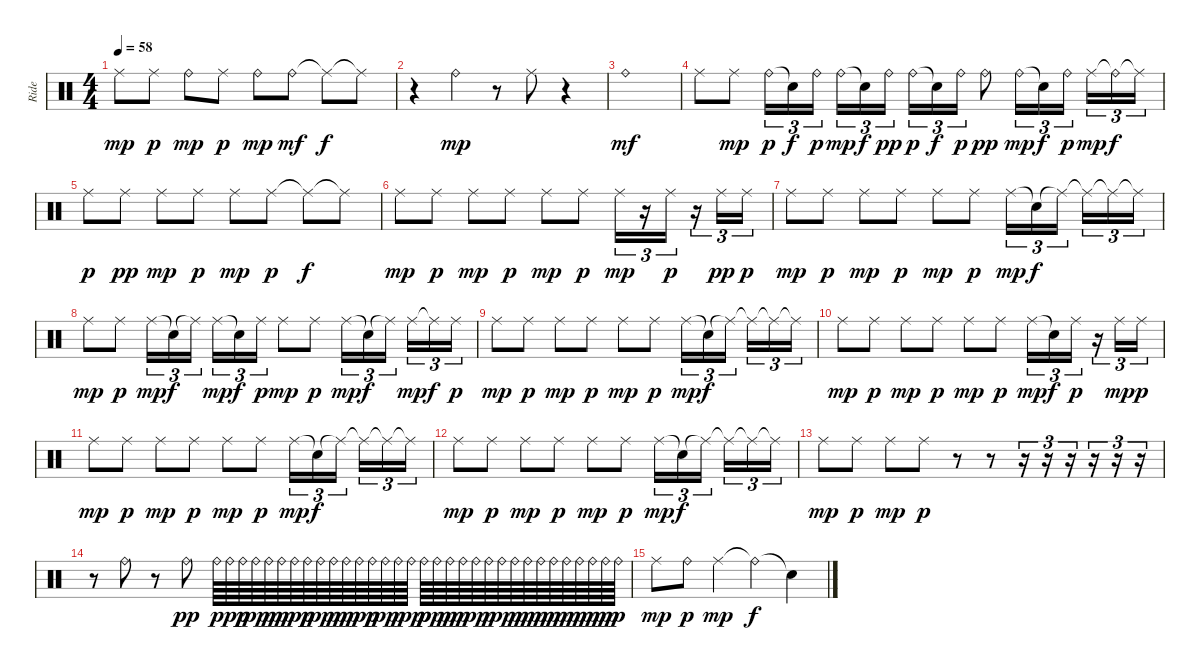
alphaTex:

\track ("Ride" "Ride") {instrument percussion}
\staff {score}
\articulation defaults
\ts (4 4)
\tempo 58
\clef neutral
\ks c "Ride (middle)".8{dy mp} "Ride (middle)".8{dy p} "Ride (bell)".8{dy mp} "Ride (middle)".8{dy p} "Ride (bell)".8{dy mp} "Ride (bell)".8{dy mf} "Ride (middle)"{t}.8{dy f} "Ride (middle)"{t}.8
|
r.4 "Ride (bell)".4{dy mp} r.8 "Ride (middle)".8 r.4 |
"Ride (bell)".1{dy mf} |
"Ride (middle)".8 "Ride (middle)".8{dy mp} "Ride (bell)".16{tu (3 2) dy p} "Snare (hit)"{t}.16{tu (3 2) dy f} "Ride (bell)".16{tu (3 2) dy p} "Ride (bell)".16{tu (3 2) dy mp} "Snare (hit)"{t}.16{tu (3 2) dy f} "Ride (bell)".16{tu (3 2) dy pp} "Ride (bell)".16{tu (3 2) dy p} "Snare (hit)"{t}.16{tu (3 2) dy f} "Ride (bell)".16{tu (3 2) dy p} "Ride (bell)".8{dy pp} "Ride (bell)".16{tu (3 2) dy mp} "Snare (hit)"{t}.16{tu (3 2) dy f} "Ride (bell)".16{tu (3 2) dy p} "Ride (middle)".16{tu (3 2) dy mp} "Ride (bell)"{t}.16{tu (3 2) dy f} "Ride (middle)"{t}.16{tu (3 2)} |
"Ride (middle)".8{dy p} "Ride (middle)".8{dy pp} "Ride (middle)".8{dy mp} "Ride (middle)".8{dy p} "Ride (middle)".8{dy mp} "Ride (middle)".8{dy p} "Ride (middle)"{t}.8{dy f} "Ride (middle)"{t}.8 |
"Ride (middle)".8{dy mp} "Ride (middle)".8{dy p} "Ride (middle)".8{dy mp} "Ride (middle)".8{dy p} "Ride (middle)".8{dy mp} "Ride (middle)".8{dy p} "Ride (middle)".16{tu (3 2) dy mp} r.16{tu (3 2)} "Ride (middle)".16{tu (3 2) dy p} r.16{tu (3 2)} "Ride (middle)".16{tu (3 2) dy pp} "Ride (middle)".16{tu (3 2) dy p} |
"Ride (middle)".8{dy mp} "Ride (middle)".8{dy p} "Ride (middle)".8{dy mp} "Ride (middle)".8{dy p} "Ride (middle)".8{dy mp} "Ride (middle)".8{dy p} "Ride (middle)".16{tu (3 2) dy mp} "Snare (hit)"{t}.16{tu (3 2) dy f} "Ride (middle)"{t}.16{tu (3 2)} "Ride (middle)"{t}.16{tu (3 2)} "Ride (middle)"{t}.16{tu (3 2)} "Ride (middle)"{t}.16{tu (3 2)} |
"Ride (middle)".8{dy mp} "Ride (middle)".8{dy p} "Ride (middle)".16{tu (3 2) dy mp} "Snare (hit)"{t}.16{tu (3 2) dy f} "Ride (middle)"{t}.16{tu (3 2)} "Ride (middle)".16{tu (3 2) dy mp} "Snare (hit)"{t}.16{tu (3 2) dy f} "Ride (middle)".16{tu (3 2) dy p} "Ride (middle)".8{dy mp} "Ride (middle)".8{dy p} "Ride (middle)".16{tu (3 2) dy mp} "Snare (hit)"{t}.16{tu (3 2) dy f} "Ride (middle)"{t}.16{tu (3 2)} "Ride (middle)".16{tu (3 2) dy mp} "Ride (middle)"{t}.16{tu (3 2) dy f} "Ride (middle)".16{tu (3 2) dy p} |
"Ride (middle)".8{dy mp} "Ride (middle)".8{dy p} "Ride (middle)".8{dy mp} "Ride (middle)".8{dy p} "Ride (middle)".8{dy mp} "Ride (middle)".8{dy p} "Ride (middle)".16{tu (3 2) dy mp} "Snare (hit)"{t}.16{tu (3 2) dy f} "Ride (middle)"{t}.16{tu (3 2)} "Ride (middle)"{t}.16{tu (3 2)} "Ride (middle)"{t}.16{tu (3 2)} "Ride (middle)"{t}.16{tu (3 2)} |
"Ride (middle)".8{dy mp} "Ride (middle)".8{dy p} "Ride (middle)".8{dy mp} "Ride (middle)".8{dy p} "Ride (middle)".8{dy mp} "Ride (middle)".8{dy p} "Ride (middle)".16{tu (3 2) dy mp} "Snare (hit)"{t}.16{tu (3 2) dy f} "Ride (middle)".16{tu (3 2) dy p} r.16{tu (3 2)} "Ride (middle)".16{tu (3 2) dy mp} "Ride (middle)".16{tu (3 2) dy p} |
"Ride (middle)".8{dy mp} "Ride (middle)".8{dy p} "Ride (middle)".8{dy mp} "Ride (middle)".8{dy p} "Ride (middle)".8{dy mp} "Ride (middle)".8{dy p} "Ride (middle)".16{tu (3 2) dy mp} "Snare (hit)"{t}.16{tu (3 2) dy f} "Ride (middle)"{t}.16{tu (3 2)} "Ride (middle)"{t}.16{tu (3 2)} "Ride (middle)"{t}.16{tu (3 2)} "Ride (middle)"{t}.16{tu (3 2)} |
"Ride (middle)".8{dy mp} "Ride (middle)".8{dy p} "Ride (middle)".8{dy mp} "Ride (middle)".8{dy p} "Ride (middle)".8{dy mp} "Ride (middle)".8{dy p} "Ride (middle)".16{tu (3 2) dy mp} "Snare (hit)"{t}.16{tu (3 2) dy f} "Ride (middle)"{t}.16{tu (3 2)} "Ride (middle)"{t}.16{tu (3 2)} "Ride (middle)"{t}.16{tu (3 2)} "Ride (middle)"{t}.16{tu (3 2)} |
"Ride (middle)".8{dy mp} "Ride (middle)".8{dy p} "Ride (middle)".8{dy mp} "Ride (middle)".8{dy p} r.8 r.8 r.16{tu (3 2)} r.16{tu (3 2)} r.16{tu (3 2)} r.16{tu (3 2)} r.16{tu (3 2)} r.16{tu (3 2)} |
r.8 "Ride (bell)".8 r.8 "Ride (bell)".8{dy pp} "Ride (bell)".64 "Ride (bell)".64{dy ppp} "Ride (bell)".64{dy p} "Ride (bell)".64{dy pp} "Ride (bell)".64{dy p} "Ride (bell)".64{dy pp} "Ride (bell)".64{dy ppp} "Ride (bell)".64{dy p} "Ride (bell)".64{dy pp} "Ride (bell)".64{dy p} "Ride (bell)".64{dy pp} "Ride (bell)".64{dy ppp} "Ride (bell)".64{dy p} "Ride (bell)".64{dy pp} "Ride (bell)".64{dy p} "Ride (bell)".64{dy pp} "Ride (bell)".64{dy p} "Ride (bell)".64{dy ppp} "Ride (bell)".64{dy pp} "Ride (bell)".64{dy p} "Ride (bell)".64{dy pp} "Ride (bell)".64{dy p} "Ride (bell)".64{dy pp} "Ride (bell)".64{dy p} "Ride (bell)".64{dy pp} "Ride (bell)".64{dy ppp} "Ride (bell)".64{dy pp} "Ride (bell)".64{dy p} "Ride (bell)".64{dy pp} "Ride (bell)".64{dy ppp} "Ride (bell)".64{dy pp} "Ride (bell)".64{dy p} |
"Ride (middle)".8{dy mp} "Ride (bell)".8{dy p} "Ride (middle)".4{dy mp} "Ride (bell)"{t}.4{dy f} "Snare (hit)"{t}.4
